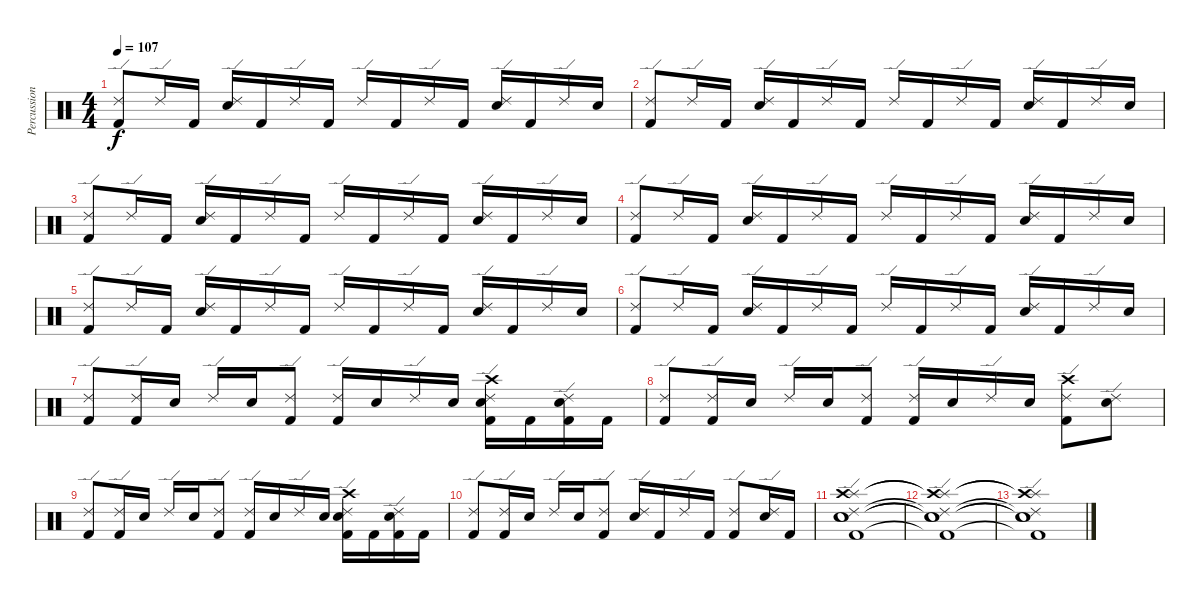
\track ("Percussion" "Percussion") {instrument percussion}
\staff {score}
\articulation defaults
\ts (4 4)
\tempo 107
\clef neutral
\ks c
("Ride (edge) 2" "Kick (hit) 2").8{dy f} "Ride (edge) 2".16 "Kick (hit) 2".16 ("Ride (edge) 2" "Electric Snare (hit)").16 "Kick (hit) 2".16 "Ride (edge) 2".16 "Kick (hit) 2".16 "Ride (edge) 2".16 "Kick (hit) 2".16 "Ride (edge) 2".16 "Kick (hit) 2".16 ("Ride (edge) 2" "Electric Snare (hit)").16 "Kick (hit) 2".16 "Ride (edge) 2".16 "Electric Snare (hit)".16 |
("Ride (edge) 2" "Kick (hit) 2").8 "Ride (edge) 2".16 "Kick (hit) 2".16 ("Ride (edge) 2" "Electric Snare (hit)").16 "Kick (hit) 2".16 "Ride (edge) 2".16 "Kick (hit) 2".16 "Ride (edge) 2".16 "Kick (hit) 2".16 "Ride (edge) 2".16 "Kick (hit) 2".16 ("Ride (edge) 2" "Electric Snare (hit)").16 "Kick (hit) 2".16 "Ride (edge) 2".16 "Electric Snare (hit)".16 |
("Ride (edge) 2" "Kick (hit) 2").8 "Ride (edge) 2".16 "Kick (hit) 2".16 ("Ride (edge) 2" "Electric Snare (hit)").16 "Kick (hit) 2".16 "Ride (edge) 2".16 "Kick (hit) 2".16 "Ride (edge) 2".16 "Kick (hit) 2".16 "Ride (edge) 2".16 "Kick (hit) 2".16 ("Ride (edge) 2" "Electric Snare (hit)").16 "Kick (hit) 2".16 "Ride (edge) 2".16 "Electric Snare (hit)".16 |
("Ride (edge) 2" "Kick (hit) 2").8 "Ride (edge) 2".16 "Kick (hit) 2".16 ("Ride (edge) 2" "Electric Snare (hit)").16 "Kick (hit) 2".16 "Ride (edge) 2".16 "Kick (hit) 2".16 "Ride (edge) 2".16 "Kick (hit) 2".16 "Ride (edge) 2".16 "Kick (hit) 2".16 ("Ride (edge) 2" "Electric Snare (hit)").16 "Kick (hit) 2".16 "Ride (edge) 2".16 "Electric Snare (hit)".16 |
("Ride (edge) 2" "Kick (hit) 2").8 "Ride (edge) 2".16 "Kick (hit) 2".16 ("Ride (edge) 2" "Electric Snare (hit)").16 "Kick (hit) 2".16 "Ride (edge) 2".16 "Kick (hit) 2".16 "Ride (edge) 2".16 "Kick (hit) 2".16 "Ride (edge) 2".16 "Kick (hit) 2".16 ("Ride (edge) 2" "Electric Snare (hit)").16 "Kick (hit) 2".16 "Ride (edge) 2".16 "Electric Snare (hit)".16 |
("Ride (edge) 2" "Kick (hit) 2").8 "Ride (edge) 2".16 "Kick (hit) 2".16 ("Ride (edge) 2" "Electric Snare (hit)").16 "Kick (hit) 2".16 "Ride (edge) 2".16 "Kick (hit) 2".16 "Ride (edge) 2".16 "Kick (hit) 2".16 "Ride (edge) 2".16 "Kick (hit) 2".16 ("Ride (edge) 2" "Electric Snare (hit)").16 "Kick (hit) 2".16 "Ride (edge) 2".16 "Electric Snare (hit)".16 |
("Ride (edge) 2" "Kick (hit) 2").8 ("Ride (edge) 2" "Kick (hit) 2").16 "Electric Snare (hit)".16 "Ride (edge) 2".16 "Electric Snare (hit)".16 ("Ride (edge) 2" "Kick (hit) 2").8 ("Ride (edge) 2" "Kick (hit) 2").16 "Electric Snare (hit)".16 "Ride (edge) 2".16 "Electric Snare (hit)".16 ("Ride (edge) 2" "Crash high (hit)" "Electric Snare (hit)" "Kick (hit) 2").16 "Kick (hit) 2".16 ("Ride (edge) 2" "Snare (hit) 2" "Kick (hit) 2").16 "Kick (hit) 2".16 |
("Ride (edge) 2" "Kick (hit) 2").8 ("Ride (edge) 2" "Kick (hit) 2").16 "Electric Snare (hit)".16 "Ride (edge) 2".16 "Electric Snare (hit)".16 ("Ride (edge) 2" "Kick (hit) 2").8 ("Ride (edge) 2" "Kick (hit) 2").16 "Electric Snare (hit)".16 "Ride (edge) 2".16 "Electric Snare (hit)".16 ("Ride (edge) 2" "Crash high (hit)" "Kick (hit) 2").8 ("Ride (edge) 2" "Electric Snare (hit)").8 |
("Ride (edge) 2" "Kick (hit) 2").8 ("Ride (edge) 2" "Kick (hit) 2").16 "Electric Snare (hit)".16 "Ride (edge) 2".16 "Electric Snare (hit)".16 ("Ride (edge) 2" "Kick (hit) 2").8 ("Ride (edge) 2" "Kick (hit) 2").16 "Electric Snare (hit)".16 "Ride (edge) 2".16 "Electric Snare (hit)".16 ("Ride (edge) 2" "Crash high (hit)" "Electric Snare (hit)" "Kick (hit) 2").16 "Kick (hit) 2".16 ("Ride (edge) 2" "Snare (hit) 2" "Kick (hit) 2").16 "Kick (hit) 2".16 |
("Ride (edge) 2" "Kick (hit) 2").8 ("Ride (edge) 2" "Kick (hit) 2").16 "Electric Snare (hit)".16 "Ride (edge) 2".16 "Electric Snare (hit)".16 ("Ride (edge) 2" "Kick (hit) 2").8 ("Ride (edge) 2" "Electric Snare (hit)").16 "Kick (hit) 2".16 "Ride (edge) 2".16 "Kick (hit) 2".16 ("Ride (edge) 2" "Kick (hit) 2").8 ("Ride (edge) 2" "Electric Snare (hit)").16 "Kick (hit) 2".16 |
("Ride (edge) 2" "Splash (hit)" "Crash high (hit)" "Electric Snare (hit)" "Kick (hit) 2" "Snare (hit) 2").1 |
("Ride (edge) 2"{t} "Splash (hit)"{t} "Crash high (hit)"{t} "Electric Snare (hit)"{t} "Kick (hit) 2"{t} "Snare (hit) 2"{t}).1 |
("Ride (edge) 2"{t} "Splash (hit)"{t} "Crash high (hit)"{t} "Electric Snare (hit)"{t} "Kick (hit) 2"{t} "Snare (hit) 2"{t}).1
